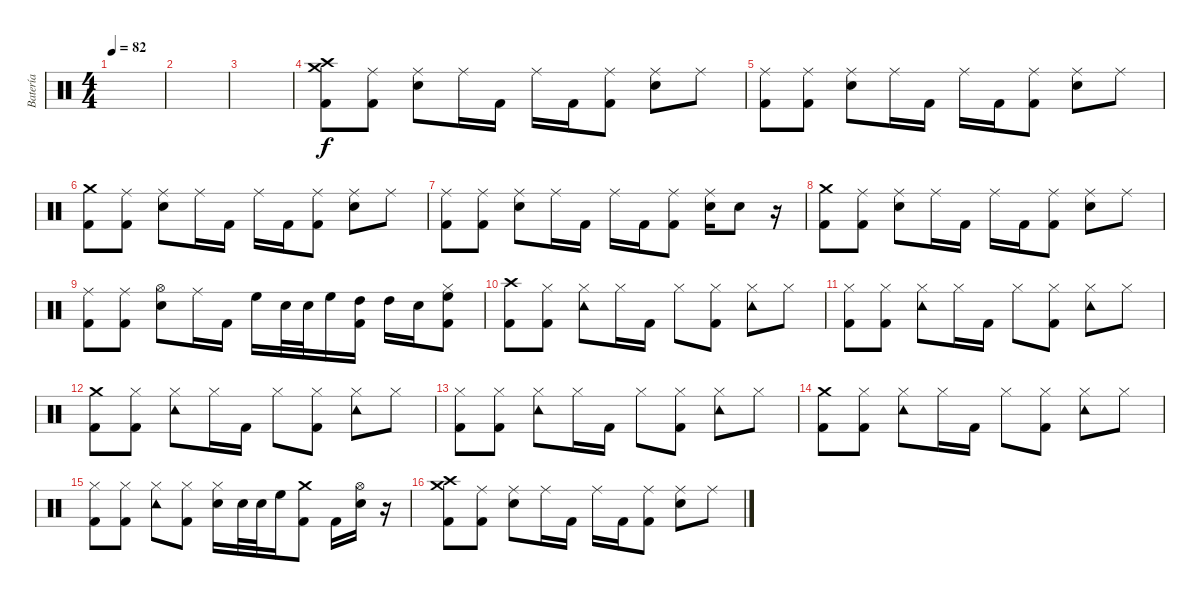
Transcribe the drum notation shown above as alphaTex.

\track ("Batería" "Batería") {instrument percussion}
\staff {score}
\articulation defaults
\ts (4 4)
\tempo 82
\clef neutral
\ks c
|
|
|
("Crash medium (hit)" "Crash high (hit)" "Kick (hit) 2").8 ("Ride (middle)" "Kick (hit) 2").8 ("Ride (middle)" "Electric Snare (hit)").8 "Ride (middle)".16 "Kick (hit) 2".16 "Ride (middle)".16 "Kick (hit) 2".16 ("Ride (middle)" "Kick (hit) 2").8 ("Ride (middle)" "Electric Snare (hit)").8 "Ride (middle)".8 |
("Ride (middle)" "Kick (hit) 2").8 ("Ride (middle)" "Kick (hit) 2").8 ("Ride (middle)" "Electric Snare (hit)").8 "Ride (middle)".16 "Kick (hit) 2".16 "Ride (middle)".16 "Kick (hit) 2".16 ("Ride (middle)" "Kick (hit) 2").8 ("Ride (middle)" "Electric Snare (hit)").8 "Ride (middle)".8 |
("Crash medium (hit)" "Kick (hit) 2").8 ("Ride (middle)" "Kick (hit) 2").8 ("Ride (middle)" "Electric Snare (hit)").8 "Ride (middle)".16 "Kick (hit) 2".16 "Ride (middle)".16 "Kick (hit) 2".16 ("Ride (middle)" "Kick (hit) 2").8 ("Ride (middle)" "Electric Snare (hit)").8 "Ride (middle)".8 |
("Ride (middle)" "Kick (hit) 2").8 ("Ride (middle)" "Kick (hit) 2").8 ("Ride (middle)" "Electric Snare (hit)").8 "Ride (middle)".16 "Kick (hit) 2".16 "Ride (middle)".16 "Kick (hit) 2".16 ("Ride (middle)" "Kick (hit) 2").8 ("Ride (middle)" "Electric Snare (hit)").16 "Electric Snare (hit)".8 r.16 |
("Crash medium (hit)" "Kick (hit) 2").8 ("Ride (middle)" "Kick (hit) 2").8 ("Ride (middle)" "Electric Snare (hit)").8 "Ride (middle)".16 "Kick (hit) 2".16 "Ride (middle)".16 "Kick (hit) 2".16 ("Ride (middle)" "Kick (hit) 2").8 ("Ride (middle)" "Electric Snare (hit)").8 "Ride (middle)".8 |
("Ride (middle)" "Kick (hit) 2").8 ("Ride (middle)" "Kick (hit) 2").8 ("Hi-Hat (open)" "Electric Snare (hit)").8 "Ride (middle)".16 "Kick (hit) 2".16 "High Floor Tom (hit)".16 "Electric Snare (hit)".32 "Electric Snare (hit)".32 "High Floor Tom (hit)".16 ("Kick (hit) 2" "High Tom (hit)").16 "High Tom (hit)".16 "Electric Snare (hit)".16 ("Kick (hit) 2" "High Floor Tom (hit)" "Hi-Hat (closed)").8 |
("Crash high (hit)" "Kick (hit) 2").8 ("Hi-Hat (closed)" "Kick (hit) 2").8{volume 11} ("Hi-Hat (closed)" "Tambourine (hit)").8 "Hi-Hat (closed)".16 "Kick (hit) 2".16 "Hi-Hat (closed)".8 ("Hi-Hat (closed)" "Kick (hit) 2").8 ("Hi-Hat (closed)" "Tambourine (hit)").8 "Hi-Hat (closed)".8 |
("Hi-Hat (closed)" "Kick (hit) 2").8 ("Hi-Hat (closed)" "Kick (hit) 2").8 ("Hi-Hat (closed)" "Tambourine (hit)").8 "Hi-Hat (closed)".16 "Kick (hit) 2".16 "Hi-Hat (closed)".8 ("Hi-Hat (closed)" "Kick (hit) 2").8 ("Hi-Hat (closed)" "Tambourine (hit)").8 "Hi-Hat (closed)".8 |
("Crash medium (hit)" "Kick (hit) 2").8 ("Hi-Hat (closed)" "Kick (hit) 2").8 ("Hi-Hat (closed)" "Tambourine (hit)").8 "Hi-Hat (closed)".16 "Kick (hit) 2".16 "Hi-Hat (closed)".8 ("Hi-Hat (closed)" "Kick (hit) 2").8 ("Hi-Hat (closed)" "Tambourine (hit)").8 "Hi-Hat (closed)".8 |
("Hi-Hat (closed)" "Kick (hit) 2").8 ("Hi-Hat (closed)" "Kick (hit) 2").8 ("Hi-Hat (closed)" "Tambourine (hit)").8 "Hi-Hat (closed)".16 "Kick (hit) 2".16 "Hi-Hat (closed)".8 ("Hi-Hat (closed)" "Kick (hit) 2").8 ("Hi-Hat (closed)" "Tambourine (hit)").8 "Hi-Hat (closed)".8 |
("Crash medium (hit)" "Kick (hit) 2").8 ("Hi-Hat (closed)" "Kick (hit) 2").8 ("Hi-Hat (closed)" "Tambourine (hit)").8 "Hi-Hat (closed)".16 "Kick (hit) 2".16 "Hi-Hat (closed)".8 ("Hi-Hat (closed)" "Kick (hit) 2").8 ("Hi-Hat (closed)" "Tambourine (hit)").8 "Hi-Hat (closed)".8 |
("Hi-Hat (closed)" "Kick (hit) 2").8 ("Hi-Hat (closed)" "Kick (hit) 2").8 ("Hi-Hat (closed)" "Tambourine (hit)").8 ("Hi-Hat (closed)" "Kick (hit) 2").8 ("Hi-Hat (closed)" "Electric Snare (hit)").16{volume 14} "Electric Snare (hit)".32 "Electric Snare (hit)".32 "High Floor Tom (hit)".16 ("Crash medium (hit)" "Kick (hit) 2").8 "Kick (hit) 2".16 ("Hi-Hat (open)" "Electric Snare (hit)").16 r.16 |
("Crash high (hit)" "Crash medium (hit)" "Kick (hit) 2").8 ("Ride (middle)" "Kick (hit) 2").8 ("Ride (middle)" "Electric Snare (hit)").8 "Ride (middle)".16 "Kick (hit) 2".16 "Ride (middle)".16 "Kick (hit) 2".16 ("Ride (middle)" "Kick (hit) 2").8 ("Ride (middle)" "Electric Snare (hit)").8 "Ride (middle)".8
